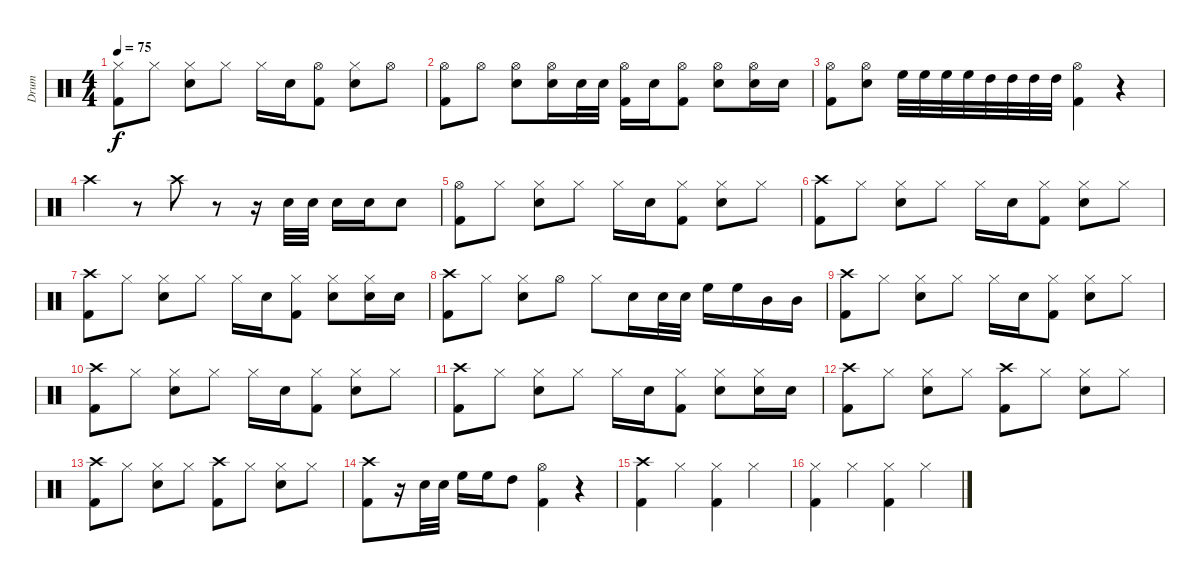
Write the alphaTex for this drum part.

\track ("Drum" "Drum") {instrument percussion}
\staff {score}
\articulation defaults
\ts (4 4)
\tempo 75
\clef neutral
\ks c
("Kick (hit) 2" "Hi-Hat (closed)").8{dy f} "Hi-Hat (closed)".8 ("Electric Snare (hit)" "Hi-Hat (closed)").8 "Hi-Hat (closed)".8 "Hi-Hat (closed)".16 "Electric Snare (hit)".16 ("Kick (hit) 2" "Hi-Hat (open)").8 ("Electric Snare (hit)" "Hi-Hat (closed)").8 "Hi-Hat (open)".8 |
("Hi-Hat (open)" "Kick (hit) 2").8 "Hi-Hat (open)".8 ("Electric Snare (hit)" "Hi-Hat (open)").8 ("Electric Snare (hit)" "Hi-Hat (open)").16 "Electric Snare (hit)".32 "Electric Snare (hit)".32 ("Kick (hit) 2" "Hi-Hat (open)").16 "Electric Snare (hit)".16 ("Kick (hit) 2" "Hi-Hat (open)").8 ("Electric Snare (hit)" "Hi-Hat (open)").8 ("Electric Snare (hit)" "Hi-Hat (open)").16 "Electric Snare (hit)".16 |
("Kick (hit) 2" "Hi-Hat (open)").8 ("Electric Snare (hit)" "Hi-Hat (open)").8 "High Floor Tom (hit)".32 "High Floor Tom (hit)".32 "High Floor Tom (hit)".32 "High Floor Tom (hit)".32 "High Tom (hit)".32 "High Tom (hit)".32 "High Tom (hit)".32 "High Tom (hit)".32 ("Kick (hit) 2" "Hi-Hat (open)").4 r.4 |
"Crash high (hit)".4 r.8 "Crash high (hit)".8 r.8 r.16 "Electric Snare (hit)".32 "Electric Snare (hit)".32 "Electric Snare (hit)".16 "Electric Snare (hit)".16 "Electric Snare (hit)".8 |
("Kick (hit) 2" "Hi-Hat (open)").8 "Hi-Hat (closed)".8 ("Electric Snare (hit)" "Hi-Hat (closed)").8 "Hi-Hat (closed)".8 "Hi-Hat (closed)".16 "Electric Snare (hit)".16 ("Kick (hit) 2" "Hi-Hat (closed)").8 ("Electric Snare (hit)" "Hi-Hat (closed)").8 "Hi-Hat (closed)".8 |
("Kick (hit) 2" "Crash high (hit)").8 "Hi-Hat (closed)".8 ("Electric Snare (hit)" "Hi-Hat (closed)").8 "Hi-Hat (closed)".8 "Hi-Hat (closed)".16 "Electric Snare (hit)".16 ("Kick (hit) 2" "Hi-Hat (closed)").8 ("Electric Snare (hit)" "Hi-Hat (closed)").8 "Hi-Hat (closed)".8 |
("Kick (hit) 2" "Crash high (hit)").8 "Hi-Hat (closed)".8 ("Electric Snare (hit)" "Hi-Hat (closed)").8 "Hi-Hat (closed)".8 "Hi-Hat (closed)".16 "Electric Snare (hit)".16 ("Kick (hit) 2" "Hi-Hat (closed)").8 ("Electric Snare (hit)" "Hi-Hat (closed)").8 ("Hi-Hat (closed)" "Electric Snare (hit)").16 "Electric Snare (hit)".16 |
("Kick (hit) 2" "Crash high (hit)").8 "Hi-Hat (closed)".8 ("Electric Snare (hit)" "Hi-Hat (closed)").8 "Hi-Hat (open)".8 "Hi-Hat (closed)".8 "Electric Snare (hit)".16 "Electric Snare (hit)".32 "Electric Snare (hit)".32 "High Floor Tom (hit)".16 "High Floor Tom (hit)".16 "Mid Tom (hit)".16 "Mid Tom (hit)".16 |
("Kick (hit) 2" "Crash high (hit)").8 "Hi-Hat (closed)".8 ("Electric Snare (hit)" "Hi-Hat (closed)").8 "Hi-Hat (closed)".8 "Hi-Hat (closed)".16 "Electric Snare (hit)".16 ("Kick (hit) 2" "Hi-Hat (closed)").8 ("Electric Snare (hit)" "Hi-Hat (closed)").8 "Hi-Hat (closed)".8 |
("Kick (hit) 2" "Crash high (hit)").8 "Hi-Hat (closed)".8 ("Electric Snare (hit)" "Hi-Hat (closed)").8 "Hi-Hat (closed)".8 "Hi-Hat (closed)".16 "Electric Snare (hit)".16 ("Kick (hit) 2" "Hi-Hat (closed)").8 ("Electric Snare (hit)" "Hi-Hat (closed)").8 "Hi-Hat (closed)".8 |
("Kick (hit) 2" "Crash high (hit)").8 "Hi-Hat (closed)".8 ("Electric Snare (hit)" "Hi-Hat (closed)").8 "Hi-Hat (closed)".8 "Hi-Hat (closed)".16 "Electric Snare (hit)".16 ("Kick (hit) 2" "Hi-Hat (closed)").8 ("Electric Snare (hit)" "Hi-Hat (closed)").8 ("Hi-Hat (closed)" "Electric Snare (hit)").16 "Electric Snare (hit)".16 |
("Kick (hit) 2" "Crash high (hit)").8 "Hi-Hat (closed)".8 ("Electric Snare (hit)" "Hi-Hat (closed)").8 "Hi-Hat (closed)".8 ("Kick (hit) 2" "Crash high (hit)").8 "Hi-Hat (closed)".8 ("Electric Snare (hit)" "Hi-Hat (closed)").8 "Hi-Hat (closed)".8 |
("Kick (hit) 2" "Crash high (hit)").8 "Hi-Hat (closed)".8 ("Electric Snare (hit)" "Hi-Hat (closed)").8 "Hi-Hat (closed)".8 ("Kick (hit) 2" "Crash high (hit)").8 "Hi-Hat (closed)".8 ("Electric Snare (hit)" "Hi-Hat (closed)").8 "Hi-Hat (closed)".8 |
("Kick (hit) 2" "Crash high (hit)").8 r.16 "Electric Snare (hit)".32 "Electric Snare (hit)".32 "High Floor Tom (hit)".16 "High Floor Tom (hit)".16 "High Tom (hit)".8 ("Hi-Hat (open)" "Kick (hit) 2").4 r.4 |
("Crash high (hit)" "Kick (hit) 2").4 "Hi-Hat (closed)".4 ("Hi-Hat (closed)" "Kick (hit) 2").4 "Hi-Hat (closed)".4 |
("Hi-Hat (closed)" "Kick (hit) 2").4 "Hi-Hat (closed)".4 ("Hi-Hat (closed)" "Kick (hit) 2").4 "Hi-Hat (closed)".4
